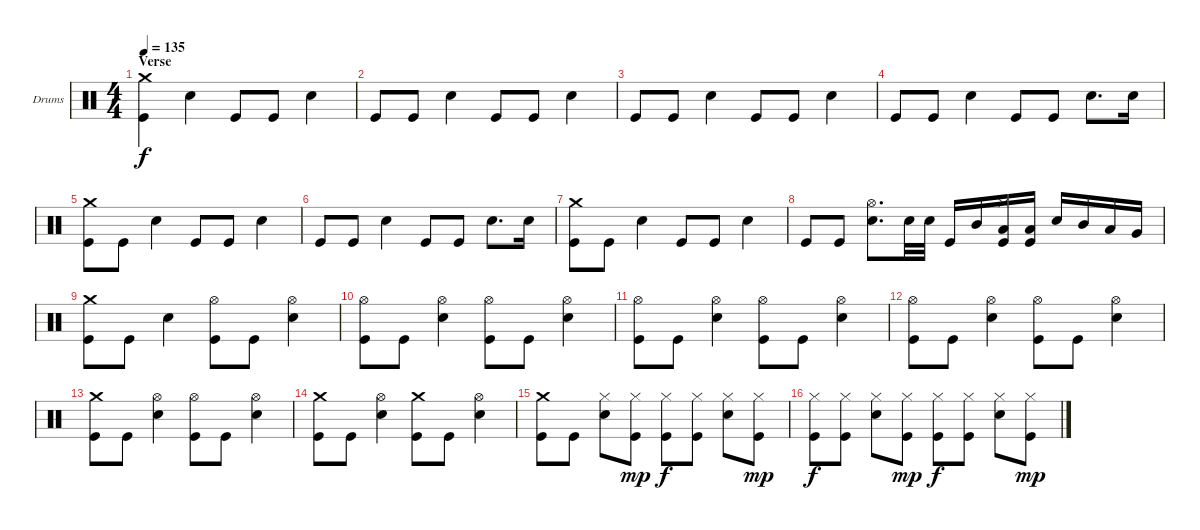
\bracketExtendMode groupsimilarinstruments
\firstSystemTrackNameOrientation horizontal
\otherSystemsTrackNameOrientation horizontal
\track ("Drumkit" "Drums") {instrument percussion}
\staff {score}
\articulation defaults
\ts (4 4)
\section ("" "Verse")
\tempo 135
\clef neutral
\ks c
("Crash medium (hit)" "Kick (hit)").4{dy f} "Snare (hit) 2".4 "Kick (hit)".8 "Kick (hit)".8 "Snare (hit) 2".4 |
"Kick (hit)".8 "Kick (hit)".8 "Snare (hit) 2".4 "Kick (hit)".8 "Kick (hit)".8 "Snare (hit) 2".4 |
"Kick (hit)".8 "Kick (hit)".8 "Snare (hit) 2".4 "Kick (hit)".8 "Kick (hit)".8 "Snare (hit) 2".4 |
"Kick (hit)".8 "Kick (hit)".8 "Snare (hit) 2".4 "Kick (hit)".8 "Kick (hit)".8 "Snare (hit) 2".8{d} "Snare (hit) 2".16 |
("Crash medium (hit)" "Kick (hit)").8 "Kick (hit)".8 "Snare (hit) 2".4 "Kick (hit)".8 "Kick (hit)".8 "Snare (hit) 2".4 |
"Kick (hit)".8 "Kick (hit)".8 "Snare (hit) 2".4 "Kick (hit)".8 "Kick (hit)".8 "Snare (hit) 2".8{d} "Snare (hit) 2".16 |
("Crash medium (hit)" "Kick (hit)").8 "Kick (hit)".8 "Snare (hit) 2".4 "Kick (hit)".8 "Kick (hit)".8 "Snare (hit) 2".4 |
"Kick (hit)".8 "Kick (hit)".8 ("Hi-Hat (open)" "Snare (hit) 2").8{d} "Snare (hit) 2".32 "Snare (hit) 2".32 "Kick (hit)".16 "Mid Tom (hit)".16 ("Hi-Hat (closed)" "Low Tom (hit)" "Kick (hit)").16 ("Kick (hit)" "Low Tom (hit)").16 "Snare (hit) 2".16 "Mid Tom (hit)".16 "Low Tom (hit)".16 "Very Low Tom (hit)".16 |
("Kick (hit)" "Crash medium (hit)").8 "Kick (hit)".8 "Snare (hit) 2".4 ("Kick (hit)" "Hi-Hat (open)").8 "Kick (hit)".8 ("Snare (hit) 2" "Hi-Hat (open)").4 |
("Kick (hit)" "Hi-Hat (open)").8 "Kick (hit)".8 ("Snare (hit) 2" "Hi-Hat (open)").4 ("Kick (hit)" "Hi-Hat (open)").8 "Kick (hit)".8 ("Snare (hit) 2" "Hi-Hat (open)").4 |
("Kick (hit)" "Hi-Hat (open)").8 "Kick (hit)".8 ("Snare (hit) 2" "Hi-Hat (open)").4 ("Kick (hit)" "Hi-Hat (open)").8 "Kick (hit)".8 ("Snare (hit) 2" "Hi-Hat (open)").4 |
("Kick (hit)" "Hi-Hat (open)").8 "Kick (hit)".8 ("Snare (hit) 2" "Hi-Hat (open)").4 ("Kick (hit)" "Hi-Hat (open)").8 "Kick (hit)".8 ("Snare (hit) 2" "Hi-Hat (open)").4 |
("Kick (hit)" "Crash medium (hit)").8 "Kick (hit)".8 ("Snare (hit) 2" "Hi-Hat (open)").4 ("Kick (hit)" "Hi-Hat (open)").8 "Kick (hit)".8 ("Snare (hit) 2" "Hi-Hat (open)").4 |
("Kick (hit)" "Crash medium (hit)").8 "Kick (hit)".8 ("Snare (hit) 2" "Hi-Hat (open)").4 ("Kick (hit)" "Crash medium (hit)").8 "Kick (hit)".8 ("Snare (hit) 2" "Hi-Hat (open)").4 |
("Crash medium (hit)" "Kick (hit)").8 "Kick (hit)".8 ("Snare (hit) 2" "Hi-Hat (closed)").8 ("Hi-Hat (closed)" "Kick (hit)").8{dy mp} ("Kick (hit)" "Hi-Hat (closed)").8{dy f} ("Kick (hit)" "Hi-Hat (closed)").8 ("Snare (hit) 2" "Hi-Hat (closed)").8 ("Hi-Hat (closed)" "Kick (hit)").8{dy mp} |
("Kick (hit)" "Hi-Hat (closed)").8{dy f} ("Kick (hit)" "Hi-Hat (closed)").8 ("Snare (hit) 2" "Hi-Hat (closed)").8 ("Hi-Hat (closed)" "Kick (hit)").8{dy mp} ("Kick (hit)" "Hi-Hat (closed)").8{dy f} ("Kick (hit)" "Hi-Hat (closed)").8 ("Snare (hit) 2" "Hi-Hat (closed)").8 ("Hi-Hat (closed)" "Kick (hit)").8{dy mp}
